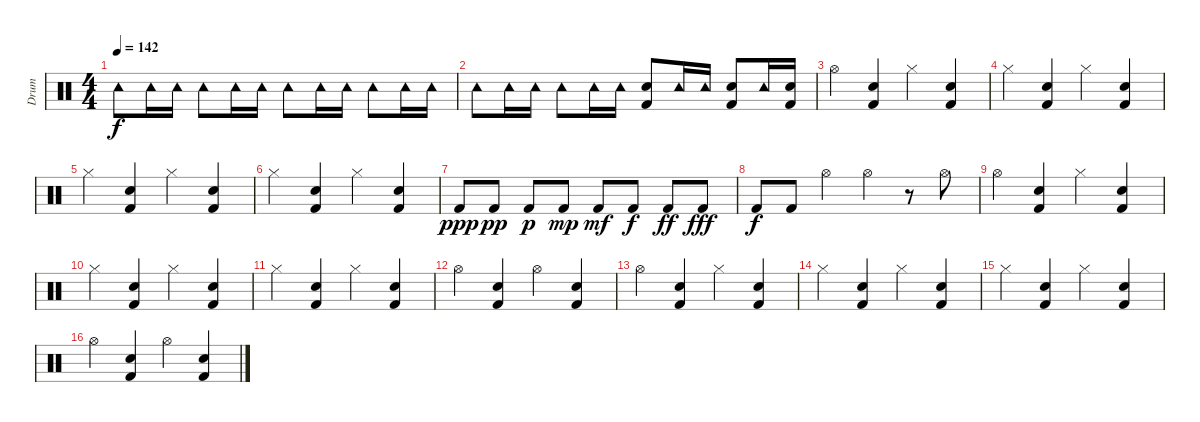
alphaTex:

\track ("Drum" "Drum") {instrument percussion}
\staff {score}
\articulation defaults
\ts (4 4)
\tempo 142
\clef neutral
\ks c "Tambourine (hit)".8{dy f} "Tambourine (hit)".16 "Tambourine (hit)".16 "Tambourine (hit)".8 "Tambourine (hit)".16 "Tambourine (hit)".16 "Tambourine (hit)".8 "Tambourine (hit)".16 "Tambourine (hit)".16 "Tambourine (hit)".8 "Tambourine (hit)".16 "Tambourine (hit)".16
|
"Tambourine (hit)".8 "Tambourine (hit)".16 "Tambourine (hit)".16 "Tambourine (hit)".8 "Tambourine (hit)".16 "Tambourine (hit)".16 ("Electric Snare (hit)" "Kick (hit) 2").8 "Tambourine (hit)".16 "Tambourine (hit)".16 ("Electric Snare (hit)" "Kick (hit) 2").8 "Tambourine (hit)".16 ("Electric Snare (hit)" "Kick (hit) 2").16 |
"Hi-Hat (open)".4 ("Electric Snare (hit)" "Kick (hit) 2").4 "Hi-Hat (closed)".4 ("Electric Snare (hit)" "Kick (hit) 2").4 |
"Hi-Hat (closed)".4 ("Electric Snare (hit)" "Kick (hit) 2").4 "Hi-Hat (closed)".4 ("Electric Snare (hit)" "Kick (hit) 2").4 |
"Hi-Hat (closed)".4 ("Electric Snare (hit)" "Kick (hit) 2").4 "Hi-Hat (closed)".4 ("Electric Snare (hit)" "Kick (hit) 2").4 |
"Hi-Hat (closed)".4 ("Electric Snare (hit)" "Kick (hit) 2").4 "Hi-Hat (closed)".4 ("Electric Snare (hit)" "Kick (hit) 2").4 |
"Kick (hit) 2".8{dy ppp} "Kick (hit) 2".8{dy pp} "Kick (hit) 2".8{dy p} "Kick (hit) 2".8{dy mp} "Kick (hit) 2".8{dy mf} "Kick (hit) 2".8{dy f} "Kick (hit) 2".8{dy ff} "Kick (hit) 2".8{dy fff} |
"Kick (hit) 2".8{dy f} "Kick (hit) 2".8 "Hi-Hat (open)".4 "Hi-Hat (open)".4 r.8 "Hi-Hat (open)".8 |
"Hi-Hat (open)".4 ("Electric Snare (hit)" "Kick (hit) 2").4 "Hi-Hat (closed)".4 ("Electric Snare (hit)" "Kick (hit) 2").4 |
"Hi-Hat (closed)".4 ("Electric Snare (hit)" "Kick (hit) 2").4 "Hi-Hat (closed)".4 ("Electric Snare (hit)" "Kick (hit) 2").4 |
"Hi-Hat (closed)".4 ("Electric Snare (hit)" "Kick (hit) 2").4 "Hi-Hat (closed)".4 ("Electric Snare (hit)" "Kick (hit) 2").4 |
"Hi-Hat (open)".4 ("Electric Snare (hit)" "Kick (hit) 2").4 "Hi-Hat (open)".4 ("Electric Snare (hit)" "Kick (hit) 2").4 |
"Hi-Hat (open)".4 ("Electric Snare (hit)" "Kick (hit) 2").4 "Hi-Hat (closed)".4 ("Electric Snare (hit)" "Kick (hit) 2").4 |
"Hi-Hat (closed)".4 ("Electric Snare (hit)" "Kick (hit) 2").4 "Hi-Hat (closed)".4 ("Electric Snare (hit)" "Kick (hit) 2").4 |
"Hi-Hat (closed)".4 ("Electric Snare (hit)" "Kick (hit) 2").4 "Hi-Hat (closed)".4 ("Electric Snare (hit)" "Kick (hit) 2").4 |
"Hi-Hat (open)".4 ("Electric Snare (hit)" "Kick (hit) 2").4 "Hi-Hat (open)".4 ("Electric Snare (hit)" "Kick (hit) 2").4
